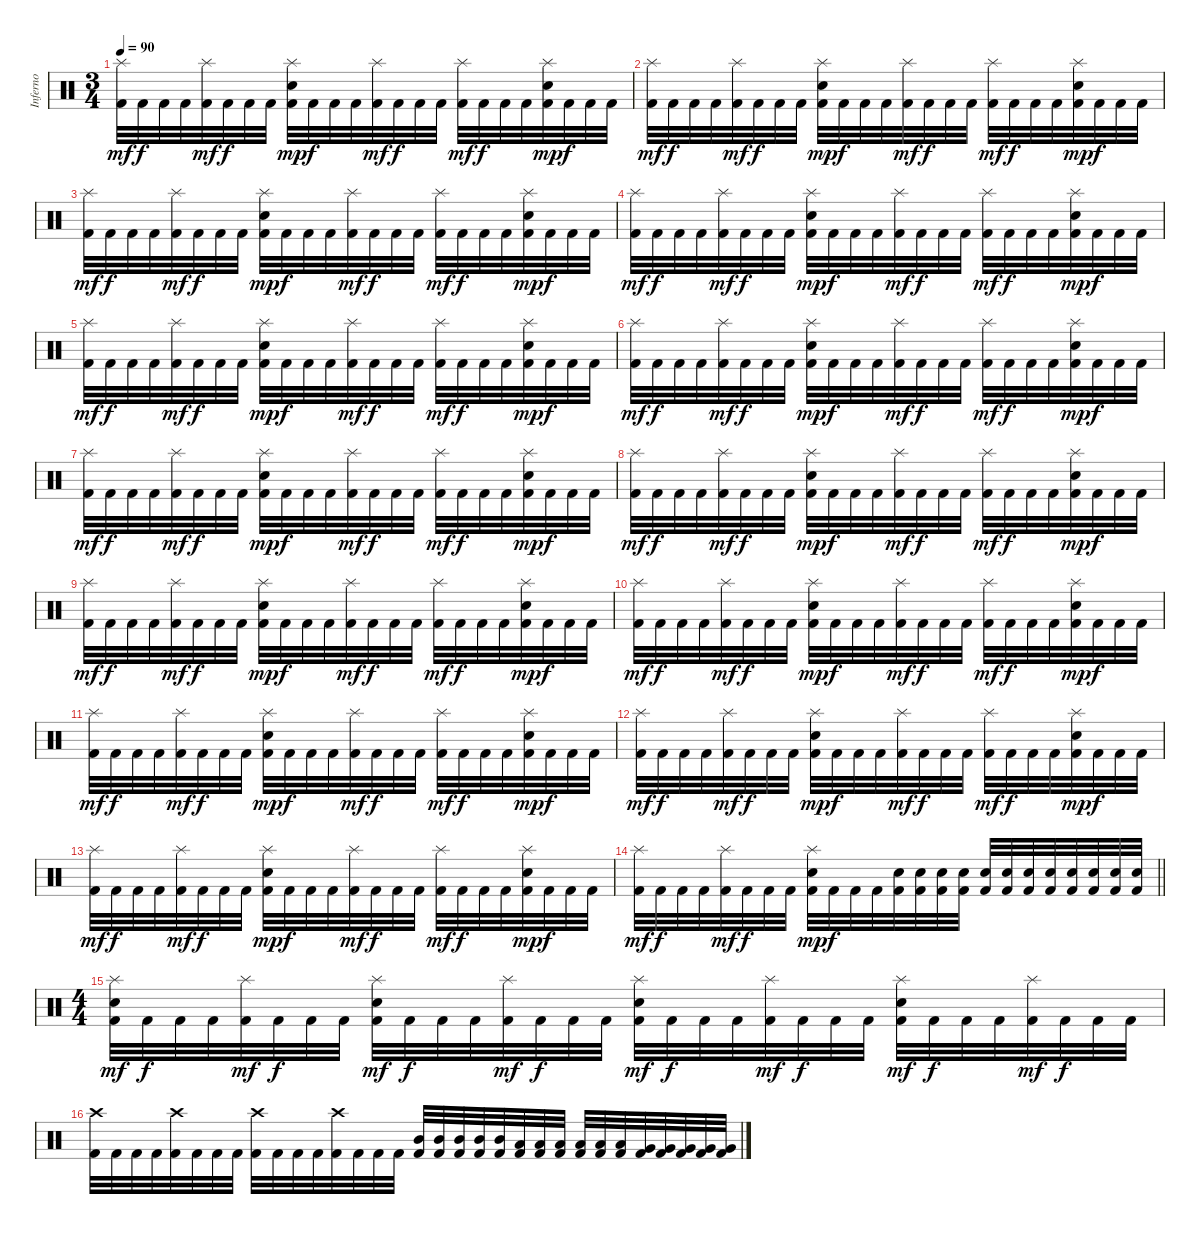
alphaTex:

\track ("Inferno" "Inferno") {instrument percussion}
\staff {score}
\articulation defaults
\ts (3 4)
\tempo 90
\clef neutral
\ks c
("Splash (hit)" "Kick (hit) 2").32{dy mf} "Kick (hit) 2".32{dy f} "Kick (hit) 2".32 "Kick (hit) 2".32 ("Splash (hit)" "Kick (hit) 2").32{dy mf} "Kick (hit) 2".32{dy f} "Kick (hit) 2".32 "Kick (hit) 2".32 ("Splash (hit)" "Electric Snare (hit)" "Kick (hit) 2").32{dy mp} "Kick (hit) 2".32{dy f} "Kick (hit) 2".32 "Kick (hit) 2".32 ("Splash (hit)" "Kick (hit) 2").32{dy mf} "Kick (hit) 2".32{dy f} "Kick (hit) 2".32 "Kick (hit) 2".32 ("Splash (hit)" "Kick (hit) 2").32{dy mf} "Kick (hit) 2".32{dy f} "Kick (hit) 2".32 "Kick (hit) 2".32 ("Splash (hit)" "Electric Snare (hit)" "Kick (hit) 2").32{dy mp} "Kick (hit) 2".32{dy f} "Kick (hit) 2".32 "Kick (hit) 2".32 |
("Splash (hit)" "Kick (hit) 2").32{dy mf} "Kick (hit) 2".32{dy f} "Kick (hit) 2".32 "Kick (hit) 2".32 ("Splash (hit)" "Kick (hit) 2").32{dy mf} "Kick (hit) 2".32{dy f} "Kick (hit) 2".32 "Kick (hit) 2".32 ("Splash (hit)" "Electric Snare (hit)" "Kick (hit) 2").32{dy mp} "Kick (hit) 2".32{dy f} "Kick (hit) 2".32 "Kick (hit) 2".32 ("Splash (hit)" "Kick (hit) 2").32{dy mf} "Kick (hit) 2".32{dy f} "Kick (hit) 2".32 "Kick (hit) 2".32 ("Splash (hit)" "Kick (hit) 2").32{dy mf} "Kick (hit) 2".32{dy f} "Kick (hit) 2".32 "Kick (hit) 2".32 ("Splash (hit)" "Electric Snare (hit)" "Kick (hit) 2").32{dy mp} "Kick (hit) 2".32{dy f} "Kick (hit) 2".32 "Kick (hit) 2".32 |
("Splash (hit)" "Kick (hit) 2").32{dy mf} "Kick (hit) 2".32{dy f} "Kick (hit) 2".32 "Kick (hit) 2".32 ("Splash (hit)" "Kick (hit) 2").32{dy mf} "Kick (hit) 2".32{dy f} "Kick (hit) 2".32 "Kick (hit) 2".32 ("Splash (hit)" "Electric Snare (hit)" "Kick (hit) 2").32{dy mp} "Kick (hit) 2".32{dy f} "Kick (hit) 2".32 "Kick (hit) 2".32 ("Splash (hit)" "Kick (hit) 2").32{dy mf} "Kick (hit) 2".32{dy f} "Kick (hit) 2".32 "Kick (hit) 2".32 ("Splash (hit)" "Kick (hit) 2").32{dy mf} "Kick (hit) 2".32{dy f} "Kick (hit) 2".32 "Kick (hit) 2".32 ("Splash (hit)" "Electric Snare (hit)" "Kick (hit) 2").32{dy mp} "Kick (hit) 2".32{dy f} "Kick (hit) 2".32 "Kick (hit) 2".32 |
("Splash (hit)" "Kick (hit) 2").32{dy mf} "Kick (hit) 2".32{dy f} "Kick (hit) 2".32 "Kick (hit) 2".32 ("Splash (hit)" "Kick (hit) 2").32{dy mf} "Kick (hit) 2".32{dy f} "Kick (hit) 2".32 "Kick (hit) 2".32 ("Splash (hit)" "Electric Snare (hit)" "Kick (hit) 2").32{dy mp} "Kick (hit) 2".32{dy f} "Kick (hit) 2".32 "Kick (hit) 2".32 ("Splash (hit)" "Kick (hit) 2").32{dy mf} "Kick (hit) 2".32{dy f} "Kick (hit) 2".32 "Kick (hit) 2".32 ("Splash (hit)" "Kick (hit) 2").32{dy mf} "Kick (hit) 2".32{dy f} "Kick (hit) 2".32 "Kick (hit) 2".32 ("Splash (hit)" "Electric Snare (hit)" "Kick (hit) 2").32{dy mp} "Kick (hit) 2".32{dy f} "Kick (hit) 2".32 "Kick (hit) 2".32 |
("Splash (hit)" "Kick (hit) 2").32{dy mf} "Kick (hit) 2".32{dy f} "Kick (hit) 2".32 "Kick (hit) 2".32 ("Splash (hit)" "Kick (hit) 2").32{dy mf} "Kick (hit) 2".32{dy f} "Kick (hit) 2".32 "Kick (hit) 2".32 ("Splash (hit)" "Electric Snare (hit)" "Kick (hit) 2").32{dy mp} "Kick (hit) 2".32{dy f} "Kick (hit) 2".32 "Kick (hit) 2".32 ("Splash (hit)" "Kick (hit) 2").32{dy mf} "Kick (hit) 2".32{dy f} "Kick (hit) 2".32 "Kick (hit) 2".32 ("Splash (hit)" "Kick (hit) 2").32{dy mf} "Kick (hit) 2".32{dy f} "Kick (hit) 2".32 "Kick (hit) 2".32 ("Splash (hit)" "Electric Snare (hit)" "Kick (hit) 2").32{dy mp} "Kick (hit) 2".32{dy f} "Kick (hit) 2".32 "Kick (hit) 2".32 |
("Splash (hit)" "Kick (hit) 2").32{dy mf} "Kick (hit) 2".32{dy f} "Kick (hit) 2".32 "Kick (hit) 2".32 ("Splash (hit)" "Kick (hit) 2").32{dy mf} "Kick (hit) 2".32{dy f} "Kick (hit) 2".32 "Kick (hit) 2".32 ("Splash (hit)" "Electric Snare (hit)" "Kick (hit) 2").32{dy mp} "Kick (hit) 2".32{dy f} "Kick (hit) 2".32 "Kick (hit) 2".32 ("Splash (hit)" "Kick (hit) 2").32{dy mf} "Kick (hit) 2".32{dy f} "Kick (hit) 2".32 "Kick (hit) 2".32 ("Splash (hit)" "Kick (hit) 2").32{dy mf} "Kick (hit) 2".32{dy f} "Kick (hit) 2".32 "Kick (hit) 2".32 ("Splash (hit)" "Electric Snare (hit)" "Kick (hit) 2").32{dy mp} "Kick (hit) 2".32{dy f} "Kick (hit) 2".32 "Kick (hit) 2".32 |
("Splash (hit)" "Kick (hit) 2").32{dy mf} "Kick (hit) 2".32{dy f} "Kick (hit) 2".32 "Kick (hit) 2".32 ("Splash (hit)" "Kick (hit) 2").32{dy mf} "Kick (hit) 2".32{dy f} "Kick (hit) 2".32 "Kick (hit) 2".32 ("Splash (hit)" "Electric Snare (hit)" "Kick (hit) 2").32{dy mp} "Kick (hit) 2".32{dy f} "Kick (hit) 2".32 "Kick (hit) 2".32 ("Splash (hit)" "Kick (hit) 2").32{dy mf} "Kick (hit) 2".32{dy f} "Kick (hit) 2".32 "Kick (hit) 2".32 ("Splash (hit)" "Kick (hit) 2").32{dy mf} "Kick (hit) 2".32{dy f} "Kick (hit) 2".32 "Kick (hit) 2".32 ("Splash (hit)" "Electric Snare (hit)" "Kick (hit) 2").32{dy mp} "Kick (hit) 2".32{dy f} "Kick (hit) 2".32 "Kick (hit) 2".32 |
("Splash (hit)" "Kick (hit) 2").32{dy mf} "Kick (hit) 2".32{dy f} "Kick (hit) 2".32 "Kick (hit) 2".32 ("Splash (hit)" "Kick (hit) 2").32{dy mf} "Kick (hit) 2".32{dy f} "Kick (hit) 2".32 "Kick (hit) 2".32 ("Splash (hit)" "Electric Snare (hit)" "Kick (hit) 2").32{dy mp} "Kick (hit) 2".32{dy f} "Kick (hit) 2".32 "Kick (hit) 2".32 ("Splash (hit)" "Kick (hit) 2").32{dy mf} "Kick (hit) 2".32{dy f} "Kick (hit) 2".32 "Kick (hit) 2".32 ("Splash (hit)" "Kick (hit) 2").32{dy mf} "Kick (hit) 2".32{dy f} "Kick (hit) 2".32 "Kick (hit) 2".32 ("Splash (hit)" "Electric Snare (hit)" "Kick (hit) 2").32{dy mp} "Kick (hit) 2".32{dy f} "Kick (hit) 2".32 "Kick (hit) 2".32 |
("Splash (hit)" "Kick (hit) 2").32{dy mf} "Kick (hit) 2".32{dy f} "Kick (hit) 2".32 "Kick (hit) 2".32 ("Splash (hit)" "Kick (hit) 2").32{dy mf} "Kick (hit) 2".32{dy f} "Kick (hit) 2".32 "Kick (hit) 2".32 ("Splash (hit)" "Electric Snare (hit)" "Kick (hit) 2").32{dy mp} "Kick (hit) 2".32{dy f} "Kick (hit) 2".32 "Kick (hit) 2".32 ("Splash (hit)" "Kick (hit) 2").32{dy mf} "Kick (hit) 2".32{dy f} "Kick (hit) 2".32 "Kick (hit) 2".32 ("Splash (hit)" "Kick (hit) 2").32{dy mf} "Kick (hit) 2".32{dy f} "Kick (hit) 2".32 "Kick (hit) 2".32 ("Splash (hit)" "Electric Snare (hit)" "Kick (hit) 2").32{dy mp} "Kick (hit) 2".32{dy f} "Kick (hit) 2".32 "Kick (hit) 2".32 |
("Splash (hit)" "Kick (hit) 2").32{dy mf} "Kick (hit) 2".32{dy f} "Kick (hit) 2".32 "Kick (hit) 2".32 ("Splash (hit)" "Kick (hit) 2").32{dy mf} "Kick (hit) 2".32{dy f} "Kick (hit) 2".32 "Kick (hit) 2".32 ("Splash (hit)" "Electric Snare (hit)" "Kick (hit) 2").32{dy mp} "Kick (hit) 2".32{dy f} "Kick (hit) 2".32 "Kick (hit) 2".32 ("Splash (hit)" "Kick (hit) 2").32{dy mf} "Kick (hit) 2".32{dy f} "Kick (hit) 2".32 "Kick (hit) 2".32 ("Splash (hit)" "Kick (hit) 2").32{dy mf} "Kick (hit) 2".32{dy f} "Kick (hit) 2".32 "Kick (hit) 2".32 ("Splash (hit)" "Electric Snare (hit)" "Kick (hit) 2").32{dy mp} "Kick (hit) 2".32{dy f} "Kick (hit) 2".32 "Kick (hit) 2".32 |
("Splash (hit)" "Kick (hit) 2").32{dy mf} "Kick (hit) 2".32{dy f} "Kick (hit) 2".32 "Kick (hit) 2".32 ("Splash (hit)" "Kick (hit) 2").32{dy mf} "Kick (hit) 2".32{dy f} "Kick (hit) 2".32 "Kick (hit) 2".32 ("Splash (hit)" "Electric Snare (hit)" "Kick (hit) 2").32{dy mp} "Kick (hit) 2".32{dy f} "Kick (hit) 2".32 "Kick (hit) 2".32 ("Splash (hit)" "Kick (hit) 2").32{dy mf} "Kick (hit) 2".32{dy f} "Kick (hit) 2".32 "Kick (hit) 2".32 ("Splash (hit)" "Kick (hit) 2").32{dy mf} "Kick (hit) 2".32{dy f} "Kick (hit) 2".32 "Kick (hit) 2".32 ("Splash (hit)" "Electric Snare (hit)" "Kick (hit) 2").32{dy mp} "Kick (hit) 2".32{dy f} "Kick (hit) 2".32 "Kick (hit) 2".32 |
("Splash (hit)" "Kick (hit) 2").32{dy mf} "Kick (hit) 2".32{dy f} "Kick (hit) 2".32 "Kick (hit) 2".32 ("Splash (hit)" "Kick (hit) 2").32{dy mf} "Kick (hit) 2".32{dy f} "Kick (hit) 2".32 "Kick (hit) 2".32 ("Splash (hit)" "Electric Snare (hit)" "Kick (hit) 2").32{dy mp} "Kick (hit) 2".32{dy f} "Kick (hit) 2".32 "Kick (hit) 2".32 ("Splash (hit)" "Kick (hit) 2").32{dy mf} "Kick (hit) 2".32{dy f} "Kick (hit) 2".32 "Kick (hit) 2".32 ("Splash (hit)" "Kick (hit) 2").32{dy mf} "Kick (hit) 2".32{dy f} "Kick (hit) 2".32 "Kick (hit) 2".32 ("Splash (hit)" "Electric Snare (hit)" "Kick (hit) 2").32{dy mp} "Kick (hit) 2".32{dy f} "Kick (hit) 2".32 "Kick (hit) 2".32 |
("Splash (hit)" "Kick (hit) 2").32{dy mf} "Kick (hit) 2".32{dy f} "Kick (hit) 2".32 "Kick (hit) 2".32 ("Splash (hit)" "Kick (hit) 2").32{dy mf} "Kick (hit) 2".32{dy f} "Kick (hit) 2".32 "Kick (hit) 2".32 ("Splash (hit)" "Electric Snare (hit)" "Kick (hit) 2").32{dy mp} "Kick (hit) 2".32{dy f} "Kick (hit) 2".32 "Kick (hit) 2".32 ("Splash (hit)" "Kick (hit) 2").32{dy mf} "Kick (hit) 2".32{dy f} "Kick (hit) 2".32 "Kick (hit) 2".32 ("Splash (hit)" "Kick (hit) 2").32{dy mf} "Kick (hit) 2".32{dy f} "Kick (hit) 2".32 "Kick (hit) 2".32 ("Splash (hit)" "Electric Snare (hit)" "Kick (hit) 2").32{dy mp} "Kick (hit) 2".32{dy f} "Kick (hit) 2".32 "Kick (hit) 2".32 |
\barLineRight lightlight
("Splash (hit)" "Kick (hit) 2").32{dy mf} "Kick (hit) 2".32{dy f} "Kick (hit) 2".32 "Kick (hit) 2".32 ("Splash (hit)" "Kick (hit) 2").32{dy mf} "Kick (hit) 2".32{dy f} "Kick (hit) 2".32 "Kick (hit) 2".32 ("Splash (hit)" "Electric Snare (hit)" "Kick (hit) 2").32{dy mp} "Kick (hit) 2".32{dy f} "Kick (hit) 2".32 "Kick (hit) 2".32 ("Electric Snare (hit)" "Kick (hit) 2").32 ("Electric Snare (hit)" "Kick (hit) 2").32 ("Electric Snare (hit)" "Kick (hit) 2").32 ("Electric Snare (hit)" "Kick (hit) 2").32 ("Electric Snare (hit)" "Kick (hit) 2").32 ("Electric Snare (hit)" "Kick (hit) 2").32 ("Electric Snare (hit)" "Kick (hit) 2").32 ("Electric Snare (hit)" "Kick (hit) 2").32 ("Electric Snare (hit)" "Kick (hit) 2").32 ("Electric Snare (hit)" "Kick (hit) 2").32 ("Electric Snare (hit)" "Kick (hit) 2").32 ("Electric Snare (hit)" "Kick (hit) 2").32 |
\ts (4 4)
("Splash (hit)" "Electric Snare (hit)" "Kick (hit) 2").32{dy mf} "Kick (hit) 2".32{dy f} "Kick (hit) 2".32 "Kick (hit) 2".32 ("Splash (hit)" "Kick (hit) 2").32{dy mf} "Kick (hit) 2".32{dy f} "Kick (hit) 2".32 "Kick (hit) 2".32 ("Splash (hit)" "Electric Snare (hit)" "Kick (hit) 2").32{dy mf} "Kick (hit) 2".32{dy f} "Kick (hit) 2".32 "Kick (hit) 2".32 ("Splash (hit)" "Kick (hit) 2").32{dy mf} "Kick (hit) 2".32{dy f} "Kick (hit) 2".32 "Kick (hit) 2".32 ("Splash (hit)" "Electric Snare (hit)" "Kick (hit) 2").32{dy mf} "Kick (hit) 2".32{dy f} "Kick (hit) 2".32 "Kick (hit) 2".32 ("Splash (hit)" "Kick (hit) 2").32{dy mf} "Kick (hit) 2".32{dy f} "Kick (hit) 2".32 "Kick (hit) 2".32 ("Splash (hit)" "Electric Snare (hit)" "Kick (hit) 2").32{dy mf} "Kick (hit) 2".32{dy f} "Kick (hit) 2".32 "Kick (hit) 2".32 ("Splash (hit)" "Kick (hit) 2").32{dy mf} "Kick (hit) 2".32{dy f} "Kick (hit) 2".32 "Kick (hit) 2".32 |
("Crash high (hit)" "Kick (hit) 2").32 "Kick (hit) 2".32 "Kick (hit) 2".32 "Kick (hit) 2".32 ("Crash high (hit)" "Kick (hit) 2").32 "Kick (hit) 2".32 "Kick (hit) 2".32 "Kick (hit) 2".32 ("Crash high (hit)" "Kick (hit) 2").32 "Kick (hit) 2".32 "Kick (hit) 2".32 "Kick (hit) 2".32 ("Crash high (hit)" "Kick (hit) 2").32 "Kick (hit) 2".32 "Kick (hit) 2".32 "Kick (hit) 2".32 ("Mid Tom (hit)" "Kick (hit) 2").32 ("Mid Tom (hit)" "Kick (hit) 2").32 ("Mid Tom (hit)" "Kick (hit) 2").32 ("Mid Tom (hit)" "Kick (hit) 2").32 ("Mid Tom (hit)" "Kick (hit) 2").32 ("Low Tom (hit)" "Kick (hit) 2").32 ("Low Tom (hit)" "Kick (hit) 2").32 ("Low Tom (hit)" "Kick (hit) 2").32 ("Low Tom (hit)" "Kick (hit) 2").32 ("Low Tom (hit)" "Kick (hit) 2").32 ("Low Tom (hit)" "Kick (hit) 2").32 ("Very Low Tom (hit)" "Kick (hit) 2").32 ("Very Low Tom (hit)" "Kick (hit) 2").32 ("Very Low Tom (hit)" "Kick (hit) 2").32 ("Very Low Tom (hit)" "Kick (hit) 2").32 ("Very Low Tom (hit)" "Kick (hit) 2").32
